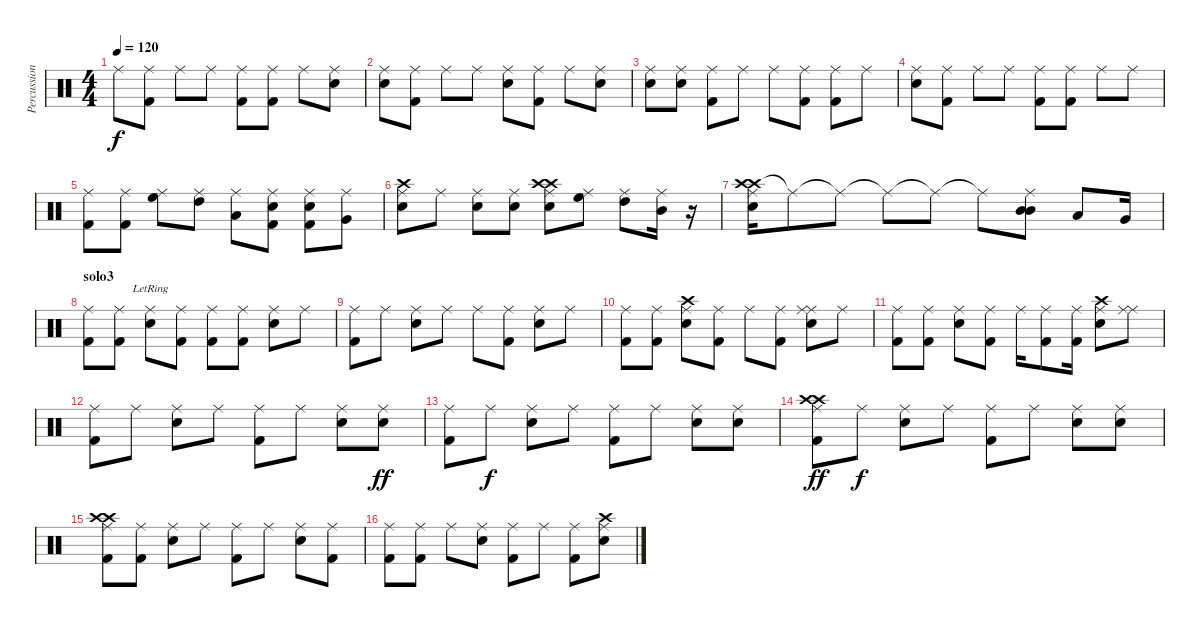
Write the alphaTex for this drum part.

\track ("Percussioni" "Percussion") {instrument percussion}
\staff {score}
\articulation defaults
\ts (4 4)
\tempo 120
\clef neutral
\ks c "Ride (middle)".8{dy f}
("Ride (middle)" "Kick (hit) 2").8 "Ride (middle)".8 "Ride (middle)".8 ("Ride (middle)" "Kick (hit) 2").8 ("Ride (middle)" "Kick (hit) 2").8 "Ride (middle)".8 ("Ride (middle)" "Electric Snare (hit)").8 |
("Ride (middle)" "Electric Snare (hit)").8 ("Ride (middle)" "Kick (hit) 2").8 "Ride (middle)".8 "Ride (middle)".8 ("Ride (middle)" "Electric Snare (hit)").8 ("Ride (middle)" "Kick (hit) 2").8 "Ride (middle)".8 ("Ride (middle)" "Electric Snare (hit)").8 |
("Ride (middle)" "Electric Snare (hit)").8 ("Ride (middle)" "Electric Snare (hit)").8 ("Ride (middle)" "Kick (hit) 2").8 "Ride (middle)".8 "Ride (middle)".8 ("Ride (middle)" "Kick (hit) 2").8 ("Ride (middle)" "Kick (hit) 2").8 "Ride (middle)".8 |
("Ride (middle)" "Electric Snare (hit)").8 ("Ride (middle)" "Kick (hit) 2").8 "Ride (middle)".8 "Ride (middle)".8 ("Ride (middle)" "Kick (hit) 2").8 ("Ride (middle)" "Kick (hit) 2").8 "Ride (middle)".8 "Ride (middle)".8 |
("Ride (middle)" "Kick (hit) 2").8 ("Ride (middle)" "Kick (hit) 2").8 ("Ride (middle)" "High Floor Tom (hit)").8 ("Ride (middle)" "High Tom (hit)").8 ("Ride (middle)" "Low Tom (hit)").8 ("Electric Snare (hit)" "Ride (middle)" "Kick (hit) 2").8 ("Electric Snare (hit)" "Ride (middle)" "Kick (hit) 2").8 ("Very Low Tom (hit)" "Ride (middle)").8 |
("Crash high (hit)" "Ride (middle)" "Electric Snare (hit)").8 "Ride (middle)".8 ("Ride (middle)" "Electric Snare (hit)").8 ("Ride (middle)" "Electric Snare (hit)").8 ("Crash high (hit)" "Crash high (hit)" "Ride (middle)" "Electric Snare (hit)").8 ("High Floor Tom (hit)" "Ride (middle)").8 ("Ride (middle)" "High Tom (hit)").8 ("Mid Tom (hit)" "Ride (middle)").16 r.16 |
("Crash high (hit)" "Crash high (hit)" "Ride (middle)" "Electric Snare (hit)").16 "Ride (middle)"{t}.8 "Ride (middle)"{t}.8 "Ride (middle)"{t}.8 "Ride (middle)"{t}.8 "Ride (middle)"{t}.8 ("Mid Tom (hit)" "Ride (middle)" "Mid Tom (hit)").8 "Low Tom (hit)".8 "Very Low Tom (hit)".16 |
\section ("" "solo3")
("Ride (middle)" "Kick (hit) 2").8 ("Ride (middle)" "Kick (hit) 2").8 ("Ride (middle)" "Electric Snare (hit)"{lr}).8 ("Ride (middle)" "Kick (hit) 2").8 ("Ride (middle)" "Kick (hit) 2").8 ("Ride (middle)" "Kick (hit) 2").8 ("Ride (middle)" "Electric Snare (hit)").8 "Ride (middle)".8 |
("Ride (middle)" "Kick (hit) 2").8 "Ride (middle)".8 ("Ride (middle)" "Electric Snare (hit)").8 "Ride (middle)".8 "Ride (middle)".8 ("Ride (middle)" "Kick (hit) 2").8 ("Ride (middle)" "Electric Snare (hit)").8 "Ride (middle)".8 |
("Ride (middle)" "Kick (hit) 2").8 ("Ride (middle)" "Kick (hit) 2").8 ("Crash high (hit)" "Ride (middle)" "Electric Snare (hit)").8 ("Ride (middle)" "Kick (hit) 2").8 "Ride (middle)".8 ("Ride (middle)" "Kick (hit) 2").8 ("Ride (middle)" "Ride (middle)" "Electric Snare (hit)").8 "Ride (middle)".8 |
("Ride (middle)" "Kick (hit) 2").8 ("Ride (middle)" "Kick (hit) 2").8 ("Ride (middle)" "Electric Snare (hit)").8 ("Ride (middle)" "Kick (hit) 2").8 "Ride (middle)".16 ("Ride (middle)" "Kick (hit) 2").8 ("Ride (middle)" "Kick (hit) 2").16 ("Crash high (hit)" "Ride (middle)" "Electric Snare (hit)").8 ("Ride (middle)" "Ride (middle)").8 |
("Ride (middle)" "Kick (hit) 2").8 "Ride (middle)".8 ("Ride (middle)" "Electric Snare (hit)").8 "Ride (middle)".8 ("Ride (middle)" "Kick (hit) 2").8 "Ride (middle)".8 ("Ride (middle)" "Electric Snare (hit)").8 ("Ride (middle)" "Electric Snare (hit)").8{dy ff} |
("Ride (middle)" "Kick (hit) 2").8 "Ride (middle)".8{dy f} ("Ride (middle)" "Electric Snare (hit)").8 "Ride (middle)".8 ("Ride (middle)" "Kick (hit) 2").8 "Ride (middle)".8 ("Ride (middle)" "Electric Snare (hit)").8 ("Ride (middle)" "Electric Snare (hit)").8 |
("Crash high (hit)" "Crash high (hit)" "Ride (middle)" "Kick (hit) 2").8{dy ff} "Ride (middle)".8{dy f} ("Ride (middle)" "Electric Snare (hit)").8 "Ride (middle)".8 ("Ride (middle)" "Kick (hit) 2").8 "Ride (middle)".8 ("Ride (middle)" "Electric Snare (hit)").8 ("Ride (middle)" "Electric Snare (hit)").8 |
("Crash high (hit)" "Crash high (hit)" "Ride (middle)" "Kick (hit) 2").8 ("Ride (middle)" "Kick (hit) 2").8 ("Ride (middle)" "Electric Snare (hit)").8 "Ride (middle)".8 ("Ride (middle)" "Kick (hit) 2").8 "Ride (middle)".8 ("Ride (middle)" "Electric Snare (hit)").8 ("Ride (middle)" "Kick (hit) 2").8 |
("Ride (middle)" "Kick (hit) 2").8 ("Ride (middle)" "Kick (hit) 2").8 "Ride (middle)".8 ("Ride (middle)" "Electric Snare (hit)").8 ("Ride (middle)" "Kick (hit) 2").8 "Ride (middle)".8 ("Ride (middle)" "Kick (hit) 2").8 ("Crash high (hit)" "Ride (middle)" "Electric Snare (hit)").8
